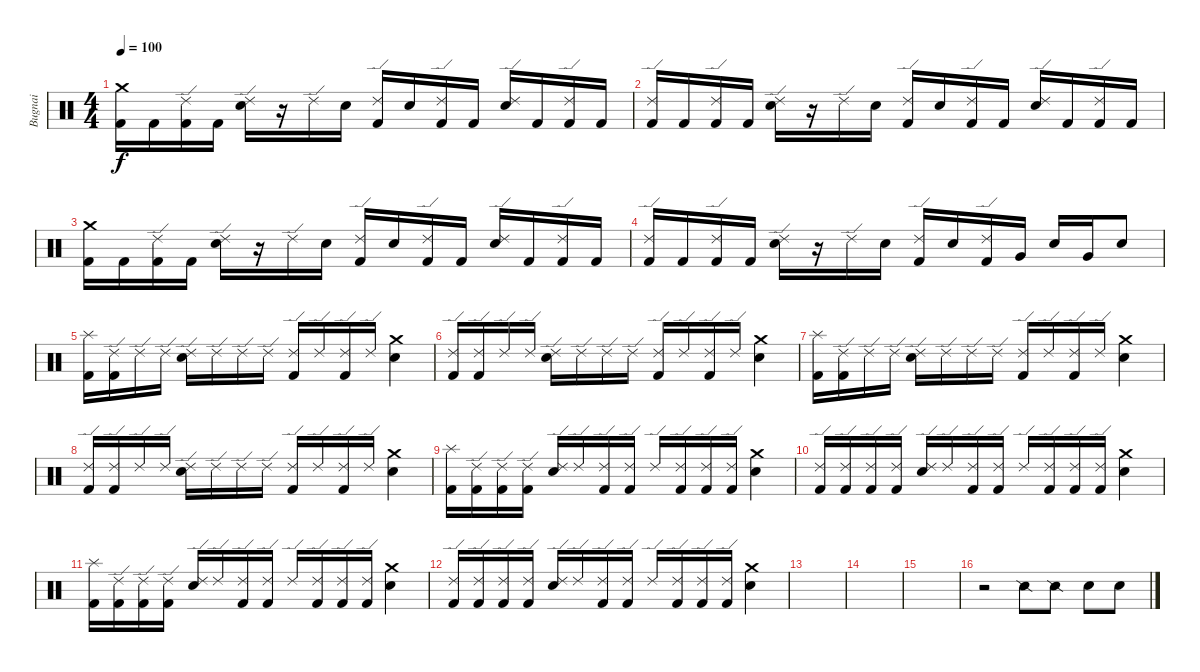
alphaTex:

\track ("Bugnai" "Bugnai") {instrument percussion}
\staff {score}
\articulation defaults
\ts (4 4)
\tempo 100
\clef neutral
\ks c
("Crash medium (hit)" "Kick (hit) 2").16{dy f} "Kick (hit) 2".16 ("Ride (edge) 2" "Kick (hit) 2").16 "Kick (hit) 2".16 ("Ride (edge) 2" "Electric Snare (hit)").16 r.16 "Ride (edge) 2".16 "Electric Snare (hit)".16 ("Ride (edge) 2" "Kick (hit) 2").16 "Electric Snare (hit)".16 ("Ride (edge) 2" "Kick (hit) 2").16 "Kick (hit) 2".16 ("Ride (edge) 2" "Electric Snare (hit)").16 "Kick (hit) 2".16 ("Ride (edge) 2" "Kick (hit) 2").16 "Kick (hit) 2".16 |
("Ride (edge) 2" "Kick (hit) 2").16 "Kick (hit) 2".16 ("Ride (edge) 2" "Kick (hit) 2").16 "Kick (hit) 2".16 ("Ride (edge) 2" "Electric Snare (hit)").16 r.16 "Ride (edge) 2".16 "Electric Snare (hit)".16 ("Ride (edge) 2" "Kick (hit) 2").16 "Electric Snare (hit)".16 ("Ride (edge) 2" "Kick (hit) 2").16 "Kick (hit) 2".16 ("Ride (edge) 2" "Electric Snare (hit)").16 "Kick (hit) 2".16 ("Ride (edge) 2" "Kick (hit) 2").16 "Kick (hit) 2".16 |
("Crash medium (hit)" "Kick (hit) 2").16 "Kick (hit) 2".16 ("Ride (edge) 2" "Kick (hit) 2").16 "Kick (hit) 2".16 ("Ride (edge) 2" "Electric Snare (hit)").16 r.16 "Ride (edge) 2".16 "Electric Snare (hit)".16 ("Ride (edge) 2" "Kick (hit) 2").16 "Electric Snare (hit)".16 ("Ride (edge) 2" "Kick (hit) 2").16 "Kick (hit) 2".16 ("Ride (edge) 2" "Electric Snare (hit)").16 "Kick (hit) 2".16 ("Ride (edge) 2" "Kick (hit) 2").16 "Kick (hit) 2".16 |
("Ride (edge) 2" "Kick (hit) 2").16 "Kick (hit) 2".16 ("Ride (edge) 2" "Kick (hit) 2").16 "Kick (hit) 2".16 ("Ride (edge) 2" "Electric Snare (hit)").16 r.16 "Ride (edge) 2".16 "Electric Snare (hit)".16 ("Ride (edge) 2" "Kick (hit) 2").16 "Electric Snare (hit)".16 ("Ride (edge) 2" "Kick (hit) 2").16 "Very Low Tom (hit)".16 "Electric Snare (hit)".16 "Very Low Tom (hit)".16 "Electric Snare (hit)".8 |
("Splash (hit)" "Kick (hit) 2").16 ("Ride (edge) 2" "Kick (hit) 2").16 "Ride (edge) 2".16 "Ride (edge) 2".16 ("Ride (edge) 2" "Electric Snare (hit)").16 "Ride (edge) 2".16 "Ride (edge) 2".16 "Ride (edge) 2".16 ("Ride (edge) 2" "Kick (hit) 2").16 "Ride (edge) 2".16 ("Ride (edge) 2" "Kick (hit) 2").16 "Ride (edge) 2".16 ("Crash medium (hit)" "Electric Snare (hit)").4 |
("Ride (edge) 2" "Kick (hit) 2").16 ("Ride (edge) 2" "Kick (hit) 2").16 "Ride (edge) 2".16 "Ride (edge) 2".16 ("Ride (edge) 2" "Electric Snare (hit)").16 "Ride (edge) 2".16 "Ride (edge) 2".16 "Ride (edge) 2".16 ("Ride (edge) 2" "Kick (hit) 2").16 "Ride (edge) 2".16 ("Ride (edge) 2" "Kick (hit) 2").16 "Ride (edge) 2".16 ("Crash medium (hit)" "Electric Snare (hit)").4 |
("Splash (hit)" "Kick (hit) 2").16 ("Ride (edge) 2" "Kick (hit) 2").16 "Ride (edge) 2".16 "Ride (edge) 2".16 ("Ride (edge) 2" "Electric Snare (hit)").16 "Ride (edge) 2".16 "Ride (edge) 2".16 "Ride (edge) 2".16 ("Ride (edge) 2" "Kick (hit) 2").16 "Ride (edge) 2".16 ("Ride (edge) 2" "Kick (hit) 2").16 "Ride (edge) 2".16 ("Crash medium (hit)" "Electric Snare (hit)").4 |
("Ride (edge) 2" "Kick (hit) 2").16 ("Ride (edge) 2" "Kick (hit) 2").16 "Ride (edge) 2".16 "Ride (edge) 2".16 ("Ride (edge) 2" "Electric Snare (hit)").16 "Ride (edge) 2".16 "Ride (edge) 2".16 "Ride (edge) 2".16 ("Ride (edge) 2" "Kick (hit) 2").16 "Ride (edge) 2".16 ("Ride (edge) 2" "Kick (hit) 2").16 "Ride (edge) 2".16 ("Crash medium (hit)" "Electric Snare (hit)").4 |
("Splash (hit)" "Kick (hit) 2").16 ("Ride (edge) 2" "Kick (hit) 2").16 ("Ride (edge) 2" "Kick (hit) 2").16 ("Ride (edge) 2" "Kick (hit) 2").16 ("Ride (edge) 2" "Electric Snare (hit)").16 "Ride (edge) 2".16 ("Ride (edge) 2" "Kick (hit) 2").16 ("Ride (edge) 2" "Kick (hit) 2").16 "Ride (edge) 2".16 ("Ride (edge) 2" "Kick (hit) 2").16 ("Ride (edge) 2" "Kick (hit) 2").16 ("Ride (edge) 2" "Kick (hit) 2").16 ("Crash medium (hit)" "Electric Snare (hit)").4 |
("Ride (edge) 2" "Kick (hit) 2").16 ("Ride (edge) 2" "Kick (hit) 2").16 ("Ride (edge) 2" "Kick (hit) 2").16 ("Ride (edge) 2" "Kick (hit) 2").16 ("Ride (edge) 2" "Electric Snare (hit)").16 "Ride (edge) 2".16 ("Ride (edge) 2" "Kick (hit) 2").16 ("Ride (edge) 2" "Kick (hit) 2").16 "Ride (edge) 2".16 ("Ride (edge) 2" "Kick (hit) 2").16 ("Ride (edge) 2" "Kick (hit) 2").16 ("Ride (edge) 2" "Kick (hit) 2").16 ("Crash medium (hit)" "Electric Snare (hit)").4 |
("Splash (hit)" "Kick (hit) 2").16 ("Ride (edge) 2" "Kick (hit) 2").16 ("Ride (edge) 2" "Kick (hit) 2").16 ("Ride (edge) 2" "Kick (hit) 2").16 ("Ride (edge) 2" "Electric Snare (hit)").16 "Ride (edge) 2".16 ("Ride (edge) 2" "Kick (hit) 2").16 ("Ride (edge) 2" "Kick (hit) 2").16 "Ride (edge) 2".16 ("Ride (edge) 2" "Kick (hit) 2").16 ("Ride (edge) 2" "Kick (hit) 2").16 ("Ride (edge) 2" "Kick (hit) 2").16 ("Crash medium (hit)" "Electric Snare (hit)").4 |
("Ride (edge) 2" "Kick (hit) 2").16 ("Ride (edge) 2" "Kick (hit) 2").16 ("Ride (edge) 2" "Kick (hit) 2").16 ("Ride (edge) 2" "Kick (hit) 2").16 ("Ride (edge) 2" "Electric Snare (hit)").16 "Ride (edge) 2".16 ("Ride (edge) 2" "Kick (hit) 2").16 ("Ride (edge) 2" "Kick (hit) 2").16 "Ride (edge) 2".16 ("Ride (edge) 2" "Kick (hit) 2").16 ("Ride (edge) 2" "Kick (hit) 2").16 ("Ride (edge) 2" "Kick (hit) 2").16 ("Crash medium (hit)" "Electric Snare (hit)").4 |
|
|
|
r.2 "Snare (side stick) 2".8 "Snare (side stick) 2".8 "Electric Snare (hit)".8 "Electric Snare (hit)".8
